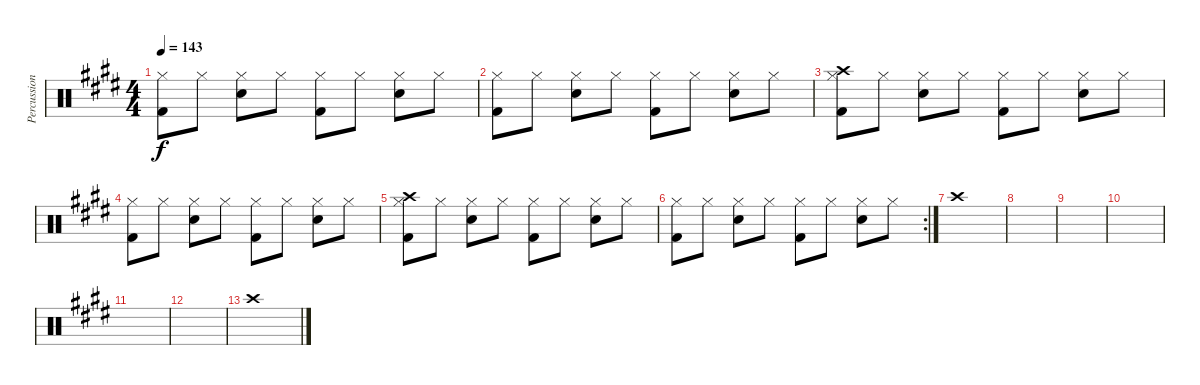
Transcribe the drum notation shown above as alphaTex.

\track ("Percussion" "Percussion") {instrument percussion}
\staff {score}
\articulation defaults
\ts (4 4)
\tempo 143
\clef neutral
\ks e
("Hi-Hat (closed)" "Kick (hit) 2").8{dy f} "Hi-Hat (closed)".8 ("Hi-Hat (closed)" "Snare (hit) 2").8 "Hi-Hat (closed)".8 ("Hi-Hat (closed)" "Kick (hit) 2").8 "Hi-Hat (closed)".8 ("Hi-Hat (closed)" "Snare (hit) 2").8 "Hi-Hat (closed)".8 |
("Hi-Hat (closed)" "Kick (hit) 2").8 "Hi-Hat (closed)".8 ("Hi-Hat (closed)" "Snare (hit) 2").8 "Hi-Hat (closed)".8 ("Hi-Hat (closed)" "Kick (hit) 2").8 "Hi-Hat (closed)".8 ("Hi-Hat (closed)" "Snare (hit) 2").8 "Hi-Hat (closed)".8 |
("Hi-Hat (closed)" "Kick (hit) 2" "Crash high (hit)").8 "Hi-Hat (closed)".8 ("Hi-Hat (closed)" "Snare (hit) 2").8 "Hi-Hat (closed)".8 ("Hi-Hat (closed)" "Kick (hit) 2").8 "Hi-Hat (closed)".8 ("Hi-Hat (closed)" "Snare (hit) 2").8 "Hi-Hat (closed)".8 |
("Hi-Hat (closed)" "Kick (hit) 2").8 "Hi-Hat (closed)".8 ("Hi-Hat (closed)" "Snare (hit) 2").8 "Hi-Hat (closed)".8 ("Hi-Hat (closed)" "Kick (hit) 2").8 "Hi-Hat (closed)".8 ("Hi-Hat (closed)" "Snare (hit) 2").8 "Hi-Hat (closed)".8 |
("Hi-Hat (closed)" "Kick (hit) 2" "Crash high (hit)").8 "Hi-Hat (closed)".8 ("Hi-Hat (closed)" "Snare (hit) 2").8 "Hi-Hat (closed)".8 ("Hi-Hat (closed)" "Kick (hit) 2").8 "Hi-Hat (closed)".8 ("Hi-Hat (closed)" "Snare (hit) 2").8 "Hi-Hat (closed)".8 |
\rc 2
("Hi-Hat (closed)" "Kick (hit) 2").8 "Hi-Hat (closed)".8 ("Hi-Hat (closed)" "Snare (hit) 2").8 "Hi-Hat (closed)".8 ("Hi-Hat (closed)" "Kick (hit) 2").8 "Hi-Hat (closed)".8 ("Hi-Hat (closed)" "Snare (hit) 2").8 "Hi-Hat (closed)".8 |
"Crash high (hit)".1 |
|
|
|
|
|
"Crash high (hit)".1
